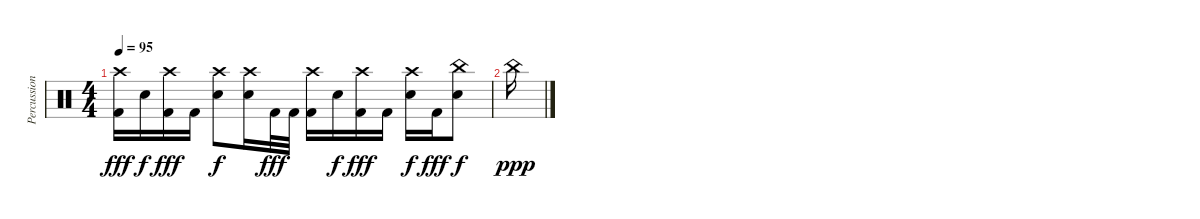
\track ("Percussions" "Percussion") {instrument percussion}
\staff {score}
\articulation defaults
\ts (4 4)
\tempo 95
\clef neutral
\ks c
("Kick (hit) 2" "Crash high (hit)").16{dy fff} "Electric Snare (hit)".16{dy f} ("Kick (hit) 2" "Crash high (hit)").16{dy fff} "Kick (hit) 2".16 ("Electric Snare (hit)" "Crash high (hit)").8{dy f} ("Electric Snare (hit)" "Crash high (hit)").16 "Kick (hit) 2".32{dy fff} "Kick (hit) 2".32 ("Kick (hit) 2" "Crash high (hit)").16 "Electric Snare (hit)".16{dy f} ("Kick (hit) 2" "Crash high (hit)").16{dy fff} "Kick (hit) 2".16 ("Electric Snare (hit)" "Crash high (hit)").16{dy f} "Kick (hit) 2".16{dy fff} ("Electric Snare (hit)" "China (hit)").8{dy f} |
"China (hit)".16{dy ppp}
